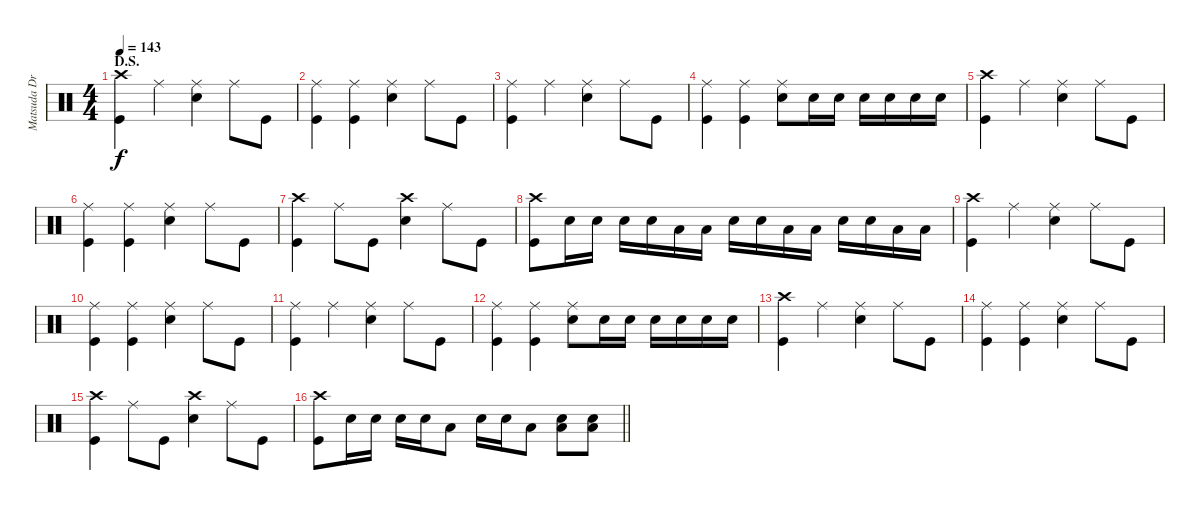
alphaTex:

\track ("Matsuda Drums" "Matsuda Dr") {instrument percussion}
\staff {score}
\articulation defaults
\ts (4 4)
\section ("" "D.S.")
\tempo 143
\clef neutral
\ks c
("Crash high (hit)" "Kick (hit)").4{dy f} "Ride (middle)".4 ("Ride (middle)" "Snare (hit) 2").4 "Ride (middle)".8 "Kick (hit)".8 |
("Ride (middle)" "Kick (hit)").4 ("Ride (middle)" "Kick (hit)").4 ("Ride (middle)" "Snare (hit) 2").4 "Ride (middle)".8 "Kick (hit)".8 |
("Ride (middle)" "Kick (hit)").4 "Ride (middle)".4 ("Ride (middle)" "Snare (hit) 2").4 "Ride (middle)".8 "Kick (hit)".8 |
("Ride (middle)" "Kick (hit)").4 ("Ride (middle)" "Kick (hit)").4 ("Ride (middle)" "Snare (hit) 2").8 "Snare (hit) 2".16 "Snare (hit) 2".16 "Snare (hit) 2".16 "Snare (hit) 2".16 "Snare (hit) 2".16 "Snare (hit) 2".16 |
("Crash high (hit)" "Kick (hit)").4 "Ride (middle)".4 ("Ride (middle)" "Snare (hit) 2").4 "Ride (middle)".8 "Kick (hit)".8 |
("Ride (middle)" "Kick (hit)").4 ("Ride (middle)" "Kick (hit)").4 ("Ride (middle)" "Snare (hit) 2").4 "Ride (middle)".8 "Kick (hit)".8 |
("Crash high (hit)" "Kick (hit)").4 "Ride (middle)".8 "Kick (hit)".8 ("Crash high (hit)" "Snare (hit) 2").4 "Ride (middle)".8 "Kick (hit)".8 |
("Crash high (hit)" "Kick (hit)").8 "Snare (hit) 2".16 "Snare (hit) 2".16 "Snare (hit) 2".16 "Snare (hit) 2".16 "Low Tom (hit)".16 "Low Tom (hit)".16 "Snare (hit) 2".16 "Snare (hit) 2".16 "Low Tom (hit)".16 "Low Tom (hit)".16 "Snare (hit) 2".16 "Snare (hit) 2".16 "Low Tom (hit)".16 "Low Tom (hit)".16 |
("Crash high (hit)" "Kick (hit)").4 "Ride (middle)".4 ("Ride (middle)" "Snare (hit) 2").4 "Ride (middle)".8 "Kick (hit)".8 |
("Ride (middle)" "Kick (hit)").4 ("Ride (middle)" "Kick (hit)").4 ("Ride (middle)" "Snare (hit) 2").4 "Ride (middle)".8 "Kick (hit)".8 |
("Ride (middle)" "Kick (hit)").4 "Ride (middle)".4 ("Ride (middle)" "Snare (hit) 2").4 "Ride (middle)".8 "Kick (hit)".8 |
("Ride (middle)" "Kick (hit)").4 ("Ride (middle)" "Kick (hit)").4 ("Ride (middle)" "Snare (hit) 2").8 "Snare (hit) 2".16 "Snare (hit) 2".16 "Snare (hit) 2".16 "Snare (hit) 2".16 "Snare (hit) 2".16 "Snare (hit) 2".16 |
("Crash high (hit)" "Kick (hit)").4 "Ride (middle)".4 ("Ride (middle)" "Snare (hit) 2").4 "Ride (middle)".8 "Kick (hit)".8 |
("Ride (middle)" "Kick (hit)").4 ("Ride (middle)" "Kick (hit)").4 ("Ride (middle)" "Snare (hit) 2").4 "Ride (middle)".8 "Kick (hit)".8 |
("Crash high (hit)" "Kick (hit)").4 "Ride (middle)".8 "Kick (hit)".8 ("Crash high (hit)" "Snare (hit) 2").4 "Ride (middle)".8 "Kick (hit)".8 |
\barLineRight lightlight
("Crash high (hit)" "Kick (hit)").8 "Snare (hit) 2".16 "Snare (hit) 2".16 "Snare (hit) 2".16 "Snare (hit) 2".16 "Low Tom (hit)".8 "Snare (hit) 2".16 "Snare (hit) 2".16 "Low Tom (hit)".8 ("Snare (hit) 2" "Low Tom (hit)").8 ("Snare (hit) 2" "Low Tom (hit)").8
